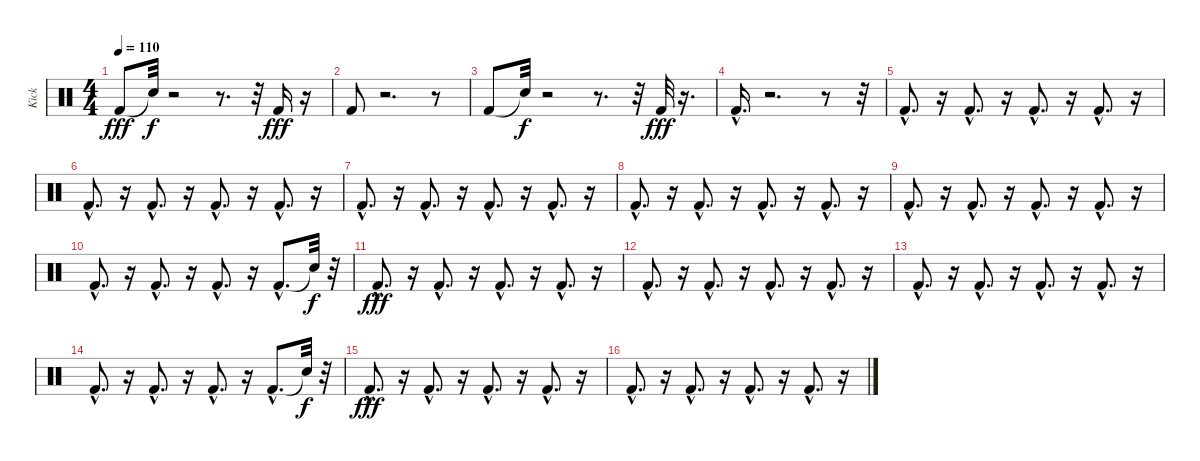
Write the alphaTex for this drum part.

\track ("Kick" "Kick") {instrument percussion}
\staff {score}
\articulation defaults
\ts (4 4)
\tempo 110
\clef neutral
\ks c "Kick (hit) 2".8{dy fff} "Snare (hit)"{t}.32{dy f}
r.2 r.8{d} r.32 "Kick (hit) 2".16{dy fff} r.16 |
"Kick (hit) 2".8 r.2{d} r.8 |
"Kick (hit) 2".8 "Snare (hit)"{t}.32{dy f} r.2 r.8{d} r.32 "Kick (hit) 2".32{dy fff} r.16{d} |
"Kick (hit) 2"{hac}.16{d} r.2{d} r.8 r.32 |
"Kick (hit) 2"{hac}.8{d} r.16 "Kick (hit) 2"{hac}.8{d} r.16 "Kick (hit) 2"{hac}.8{d} r.16 "Kick (hit) 2"{hac}.8{d} r.16 |
"Kick (hit) 2"{hac}.8{d} r.16 "Kick (hit) 2"{hac}.8{d} r.16 "Kick (hit) 2"{hac}.8{d} r.16 "Kick (hit) 2"{hac}.8{d} r.16 |
"Kick (hit) 2"{hac}.8{d} r.16 "Kick (hit) 2"{hac}.8{d} r.16 "Kick (hit) 2"{hac}.8{d} r.16 "Kick (hit) 2"{hac}.8{d} r.16 |
"Kick (hit) 2"{hac}.8{d} r.16 "Kick (hit) 2"{hac}.8{d} r.16 "Kick (hit) 2"{hac}.8{d} r.16 "Kick (hit) 2"{hac}.8{d} r.16 |
"Kick (hit) 2"{hac}.8{d} r.16 "Kick (hit) 2"{hac}.8{d} r.16 "Kick (hit) 2"{hac}.8{d} r.16 "Kick (hit) 2"{hac}.8{d} r.16 |
"Kick (hit) 2"{hac}.8{d} r.16 "Kick (hit) 2"{hac}.8{d} r.16 "Kick (hit) 2"{hac}.8{d} r.16 "Kick (hit) 2"{hac}.8{d} "Snare (hit)"{t}.32{dy f} r.32 |
"Kick (hit) 2"{hac}.8{d dy fff} r.16 "Kick (hit) 2"{hac}.8{d} r.16 "Kick (hit) 2"{hac}.8{d} r.16 "Kick (hit) 2"{hac}.8{d} r.16 |
"Kick (hit) 2"{hac}.8{d} r.16 "Kick (hit) 2"{hac}.8{d} r.16 "Kick (hit) 2"{hac}.8{d} r.16 "Kick (hit) 2"{hac}.8{d} r.16 |
"Kick (hit) 2"{hac}.8{d} r.16 "Kick (hit) 2"{hac}.8{d} r.16 "Kick (hit) 2"{hac}.8{d} r.16 "Kick (hit) 2"{hac}.8{d} r.16 |
"Kick (hit) 2"{hac}.8{d} r.16 "Kick (hit) 2"{hac}.8{d} r.16 "Kick (hit) 2"{hac}.8{d} r.16 "Kick (hit) 2"{hac}.8{d} "Snare (hit)"{t}.32{dy f} r.32 |
"Kick (hit) 2"{hac}.8{d dy fff} r.16 "Kick (hit) 2"{hac}.8{d} r.16 "Kick (hit) 2"{hac}.8{d} r.16 "Kick (hit) 2"{hac}.8{d} r.16 |
"Kick (hit) 2"{hac}.8{d} r.16 "Kick (hit) 2"{hac}.8{d} r.16 "Kick (hit) 2"{hac}.8{d} r.16 "Kick (hit) 2"{hac}.8{d} r.16
